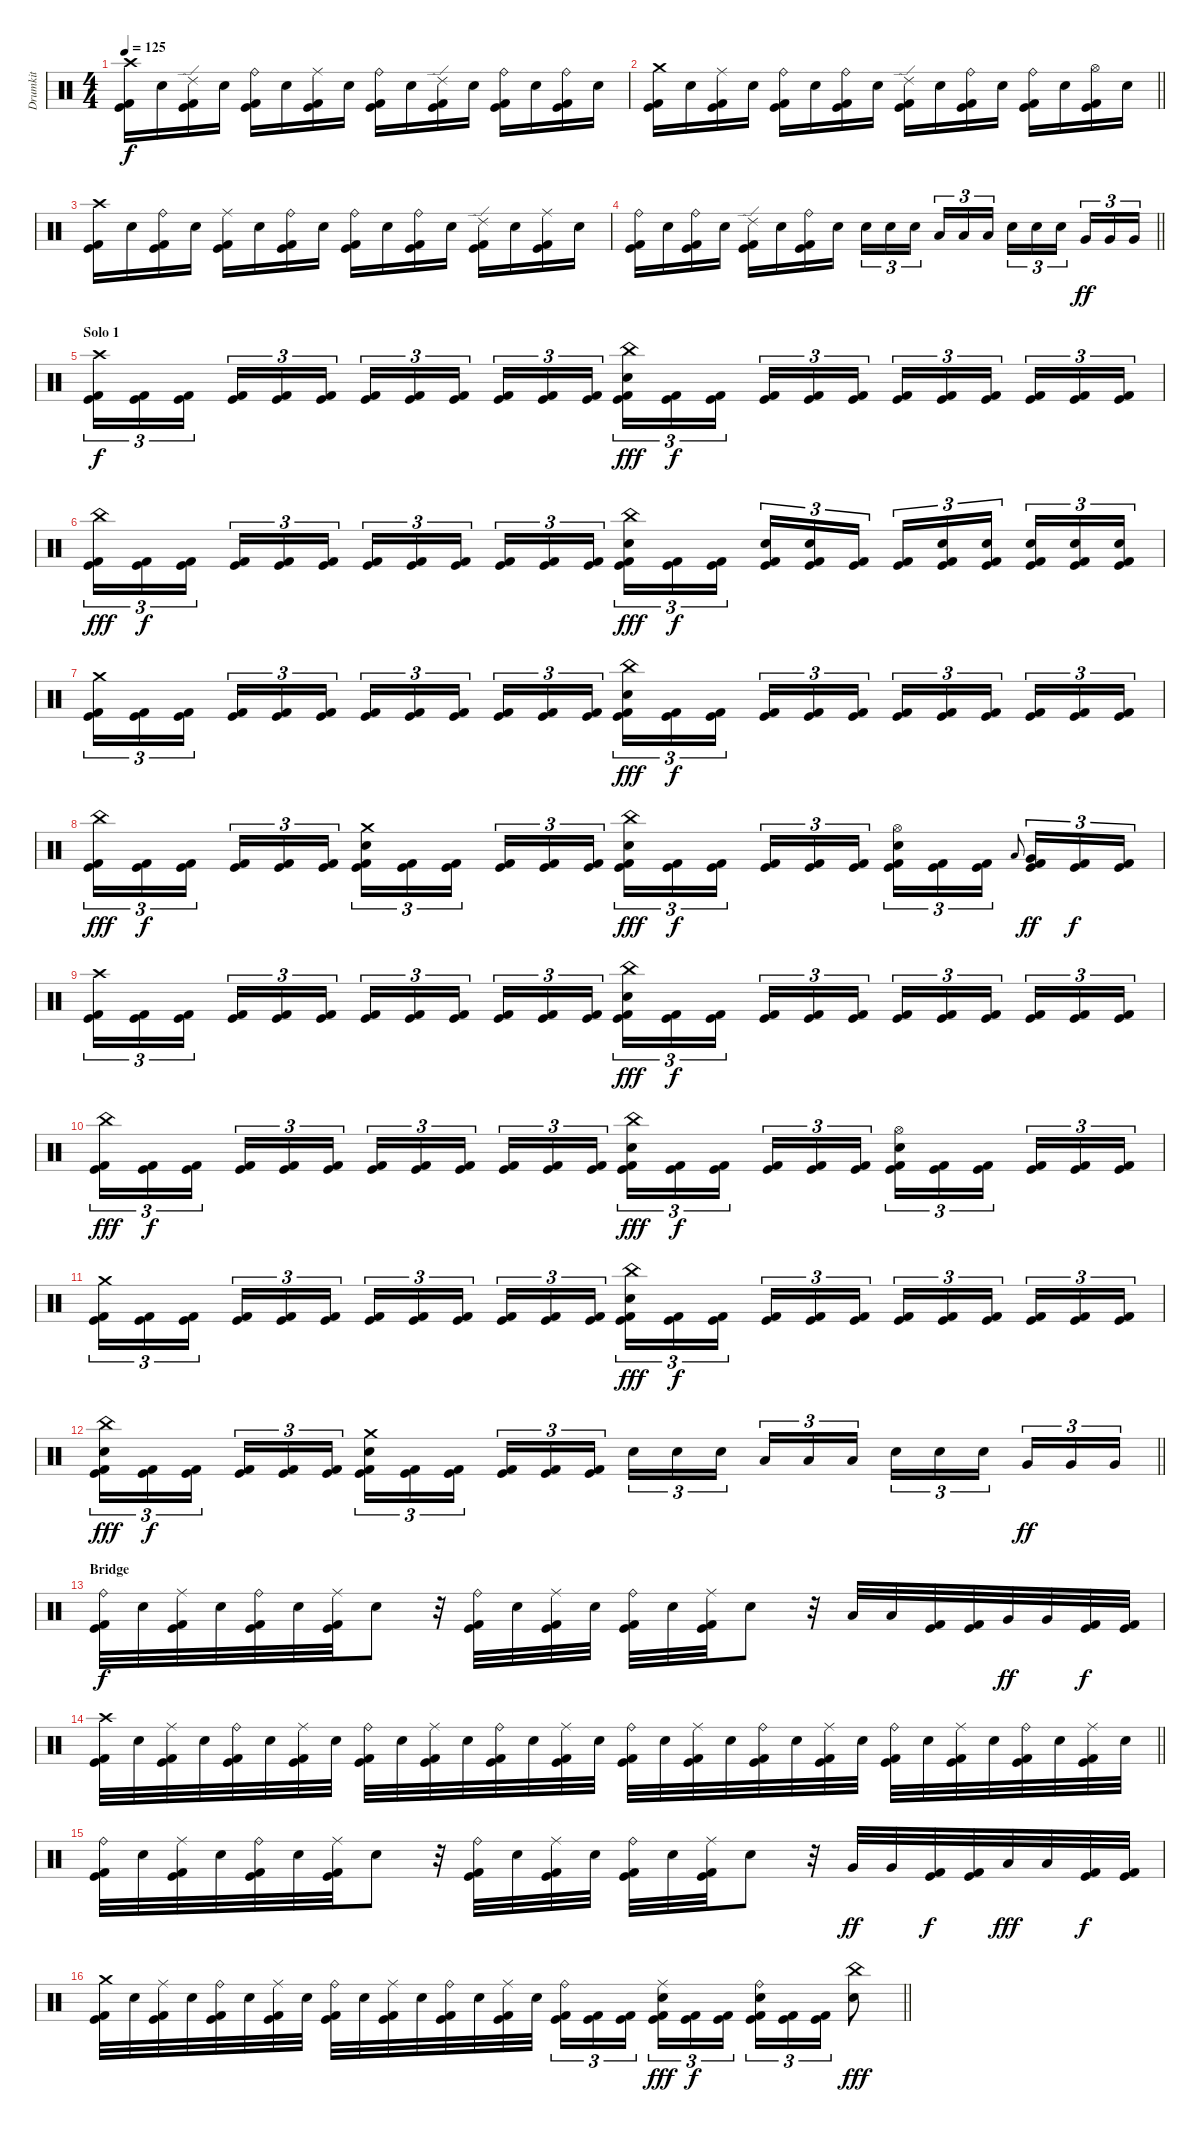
\track ("Drumkit" "Drumkit") {instrument percussion}
\staff {score}
\articulation defaults
\ts (4 4)
\tempo 125
\clef neutral
\ks c
("Crash high (hit)" "Kick (hit)" "Kick (hit) 2").16{dy f} "Electric Snare (hit)".16 ("Ride (edge) 2" "Kick (hit)" "Kick (hit) 2").16 "Electric Snare (hit)".16 ("Ride (bell)" "Kick (hit)" "Kick (hit) 2").16 "Electric Snare (hit)".16 ("Ride (middle)" "Kick (hit)" "Kick (hit) 2").16 "Electric Snare (hit)".16 ("Ride (bell)" "Kick (hit)" "Kick (hit) 2").16 "Electric Snare (hit)".16 ("Ride (edge) 2" "Kick (hit)" "Kick (hit) 2").16 "Electric Snare (hit)".16 ("Ride (bell)" "Kick (hit)" "Kick (hit) 2").16 "Electric Snare (hit)".16 ("Ride (bell)" "Kick (hit)" "Kick (hit) 2").16 "Electric Snare (hit)".16 |
\barLineRight lightlight
("Crash medium (hit)" "Kick (hit)" "Kick (hit) 2").16 "Electric Snare (hit)".16 ("Ride (middle)" "Kick (hit)" "Kick (hit) 2").16 "Electric Snare (hit)".16 ("Ride (bell)" "Kick (hit)" "Kick (hit) 2").16 "Electric Snare (hit)".16 ("Ride (bell)" "Kick (hit)" "Kick (hit) 2").16 "Electric Snare (hit)".16 ("Ride (edge) 2" "Kick (hit)" "Kick (hit) 2").16 "Electric Snare (hit)".16 ("Ride (bell)" "Kick (hit)" "Kick (hit) 2").16 "Electric Snare (hit)".16 ("Ride (bell)" "Kick (hit)" "Kick (hit) 2").16 "Electric Snare (hit)".16 ("Hi-Hat (open)" "Kick (hit)" "Kick (hit) 2").16 "Electric Snare (hit)".16 |
("Crash high (hit)" "Kick (hit)" "Kick (hit) 2").16 "Electric Snare (hit)".16 ("Ride (bell)" "Kick (hit)" "Kick (hit) 2").16 "Electric Snare (hit)".16 ("Ride (middle)" "Kick (hit)" "Kick (hit) 2").16 "Electric Snare (hit)".16 ("Ride (bell)" "Kick (hit)" "Kick (hit) 2").16 "Electric Snare (hit)".16 ("Ride (bell)" "Kick (hit)" "Kick (hit) 2").16 "Electric Snare (hit)".16 ("Ride (bell)" "Kick (hit)" "Kick (hit) 2").16 "Electric Snare (hit)".16 ("Ride (edge) 2" "Kick (hit)" "Kick (hit) 2").16 "Electric Snare (hit)".16 ("Ride (middle)" "Kick (hit)" "Kick (hit) 2").16 "Electric Snare (hit)".16 |
\barLineRight lightlight
("Ride (bell)" "Kick (hit)" "Kick (hit) 2").16 "Electric Snare (hit)".16 ("Ride (bell)" "Kick (hit)" "Kick (hit) 2").16 "Electric Snare (hit)".16 ("Ride (edge) 2" "Kick (hit)" "Kick (hit) 2").16 "Electric Snare (hit)".16 ("Ride (bell)" "Kick (hit)" "Kick (hit) 2").16 "Electric Snare (hit)".16 "Electric Snare (hit)".16{tu (3 2)} "Electric Snare (hit)".16{tu (3 2)} "Electric Snare (hit)".16{tu (3 2) beam splitsecondary} "Low Tom (hit)".16{tu (3 2)} "Low Tom (hit)".16{tu (3 2)} "Low Tom (hit)".16{tu (3 2)} "Electric Snare (hit)".16{tu (3 2)} "Electric Snare (hit)".16{tu (3 2)} "Electric Snare (hit)".16{tu (3 2) beam splitsecondary} "Very Low Tom (hit)".16{tu (3 2) dy ff} "Very Low Tom (hit)".16{tu (3 2)} "Very Low Tom (hit)".16{tu (3 2)} |
\section ("" "Solo 1")
("Crash high (hit)" "Kick (hit)" "Kick (hit) 2").16{tu (3 2) dy f} ("Kick (hit)" "Kick (hit) 2").16{tu (3 2)} ("Kick (hit)" "Kick (hit) 2").16{tu (3 2) beam splitsecondary} ("Kick (hit)" "Kick (hit) 2").16{tu (3 2)} ("Kick (hit)" "Kick (hit) 2").16{tu (3 2)} ("Kick (hit)" "Kick (hit) 2").16{tu (3 2)} ("Kick (hit)" "Kick (hit) 2").16{tu (3 2)} ("Kick (hit)" "Kick (hit) 2").16{tu (3 2)} ("Kick (hit)" "Kick (hit) 2").16{tu (3 2) beam splitsecondary} ("Kick (hit)" "Kick (hit) 2").16{tu (3 2)} ("Kick (hit)" "Kick (hit) 2").16{tu (3 2)} ("Kick (hit)" "Kick (hit) 2").16{tu (3 2)} ("China (hit)" "Electric Snare (hit)" "Kick (hit)" "Kick (hit) 2").16{tu (3 2) dy fff} ("Kick (hit)" "Kick (hit) 2").16{tu (3 2) dy f} ("Kick (hit)" "Kick (hit) 2").16{tu (3 2) beam splitsecondary} ("Kick (hit)" "Kick (hit) 2").16{tu (3 2)} ("Kick (hit)" "Kick (hit) 2").16{tu (3 2)} ("Kick (hit)" "Kick (hit) 2").16{tu (3 2)} ("Kick (hit)" "Kick (hit) 2").16{tu (3 2)} ("Kick (hit)" "Kick (hit) 2").16{tu (3 2)} ("Kick (hit)" "Kick (hit) 2").16{tu (3 2) beam splitsecondary} ("Kick (hit)" "Kick (hit) 2").16{tu (3 2)} ("Kick (hit)" "Kick (hit) 2").16{tu (3 2)} ("Kick (hit)" "Kick (hit) 2").16{tu (3 2)} |
("China (hit)" "Kick (hit)" "Kick (hit) 2").16{tu (3 2) dy fff} ("Kick (hit)" "Kick (hit) 2").16{tu (3 2) dy f} ("Kick (hit)" "Kick (hit) 2").16{tu (3 2) beam splitsecondary} ("Kick (hit)" "Kick (hit) 2").16{tu (3 2)} ("Kick (hit)" "Kick (hit) 2").16{tu (3 2)} ("Kick (hit)" "Kick (hit) 2").16{tu (3 2)} ("Kick (hit)" "Kick (hit) 2").16{tu (3 2)} ("Kick (hit)" "Kick (hit) 2").16{tu (3 2)} ("Kick (hit)" "Kick (hit) 2").16{tu (3 2) beam splitsecondary} ("Kick (hit)" "Kick (hit) 2").16{tu (3 2)} ("Kick (hit)" "Kick (hit) 2").16{tu (3 2)} ("Kick (hit)" "Kick (hit) 2").16{tu (3 2)} ("China (hit)" "Electric Snare (hit)" "Kick (hit)" "Kick (hit) 2").16{tu (3 2) dy fff} ("Kick (hit)" "Kick (hit) 2").16{tu (3 2) dy f} ("Kick (hit)" "Kick (hit) 2").16{tu (3 2) beam splitsecondary} ("Electric Snare (hit)" "Kick (hit)" "Kick (hit) 2").16{tu (3 2)} ("Electric Snare (hit)" "Kick (hit)" "Kick (hit) 2").16{tu (3 2)} ("Kick (hit)" "Kick (hit) 2").16{tu (3 2)} ("Kick (hit)" "Kick (hit) 2").16{tu (3 2)} ("Electric Snare (hit)" "Kick (hit)" "Kick (hit) 2").16{tu (3 2)} ("Electric Snare (hit)" "Kick (hit)" "Kick (hit) 2").16{tu (3 2) beam splitsecondary} ("Electric Snare (hit)" "Kick (hit)" "Kick (hit) 2").16{tu (3 2)} ("Electric Snare (hit)" "Kick (hit)" "Kick (hit) 2").16{tu (3 2)} ("Electric Snare (hit)" "Kick (hit)" "Kick (hit) 2").16{tu (3 2)} |
("Crash medium (hit)" "Kick (hit)" "Kick (hit) 2").16{tu (3 2)} ("Kick (hit)" "Kick (hit) 2").16{tu (3 2)} ("Kick (hit)" "Kick (hit) 2").16{tu (3 2) beam splitsecondary} ("Kick (hit)" "Kick (hit) 2").16{tu (3 2)} ("Kick (hit)" "Kick (hit) 2").16{tu (3 2)} ("Kick (hit)" "Kick (hit) 2").16{tu (3 2)} ("Kick (hit)" "Kick (hit) 2").16{tu (3 2)} ("Kick (hit)" "Kick (hit) 2").16{tu (3 2)} ("Kick (hit)" "Kick (hit) 2").16{tu (3 2) beam splitsecondary} ("Kick (hit)" "Kick (hit) 2").16{tu (3 2)} ("Kick (hit)" "Kick (hit) 2").16{tu (3 2)} ("Kick (hit)" "Kick (hit) 2").16{tu (3 2)} ("China (hit)" "Electric Snare (hit)" "Kick (hit)" "Kick (hit) 2").16{tu (3 2) dy fff} ("Kick (hit)" "Kick (hit) 2").16{tu (3 2) dy f} ("Kick (hit)" "Kick (hit) 2").16{tu (3 2) beam splitsecondary} ("Kick (hit)" "Kick (hit) 2").16{tu (3 2)} ("Kick (hit)" "Kick (hit) 2").16{tu (3 2)} ("Kick (hit)" "Kick (hit) 2").16{tu (3 2)} ("Kick (hit)" "Kick (hit) 2").16{tu (3 2)} ("Kick (hit)" "Kick (hit) 2").16{tu (3 2)} ("Kick (hit)" "Kick (hit) 2").16{tu (3 2) beam splitsecondary} ("Kick (hit)" "Kick (hit) 2").16{tu (3 2)} ("Kick (hit)" "Kick (hit) 2").16{tu (3 2)} ("Kick (hit)" "Kick (hit) 2").16{tu (3 2)} |
("China (hit)" "Kick (hit)" "Kick (hit) 2").16{tu (3 2) dy fff} ("Kick (hit)" "Kick (hit) 2").16{tu (3 2) dy f} ("Kick (hit)" "Kick (hit) 2").16{tu (3 2) beam splitsecondary} ("Kick (hit)" "Kick (hit) 2").16{tu (3 2)} ("Kick (hit)" "Kick (hit) 2").16{tu (3 2)} ("Kick (hit)" "Kick (hit) 2").16{tu (3 2)} ("Crash medium (hit)" "Electric Snare (hit)" "Kick (hit)" "Kick (hit) 2").16{tu (3 2)} ("Kick (hit)" "Kick (hit) 2").16{tu (3 2)} ("Kick (hit)" "Kick (hit) 2").16{tu (3 2) beam splitsecondary} ("Kick (hit)" "Kick (hit) 2").16{tu (3 2)} ("Kick (hit)" "Kick (hit) 2").16{tu (3 2)} ("Kick (hit)" "Kick (hit) 2").16{tu (3 2)} ("China (hit)" "Electric Snare (hit)" "Kick (hit)" "Kick (hit) 2").16{tu (3 2) dy fff} ("Kick (hit)" "Kick (hit) 2").16{tu (3 2) dy f} ("Kick (hit)" "Kick (hit) 2").16{tu (3 2) beam splitsecondary} ("Kick (hit)" "Kick (hit) 2").16{tu (3 2)} ("Kick (hit)" "Kick (hit) 2").16{tu (3 2)} ("Kick (hit)" "Kick (hit) 2").16{tu (3 2)} ("Hi-Hat (open)" "Electric Snare (hit)" "Kick (hit)" "Kick (hit) 2").16{tu (3 2)} ("Kick (hit)" "Kick (hit) 2").16{tu (3 2)} ("Kick (hit)" "Kick (hit) 2").16{tu (3 2)} "Low Tom (hit)".8{gr onbeat beam splitsecondary} ("Very Low Tom (hit)" "Kick (hit)" "Kick (hit) 2").16{tu (3 2) dy ff} ("Kick (hit)" "Kick (hit) 2").16{tu (3 2) dy f} ("Kick (hit)" "Kick (hit) 2").16{tu (3 2)} |
("Crash high (hit)" "Kick (hit)" "Kick (hit) 2").16{tu (3 2)} ("Kick (hit)" "Kick (hit) 2").16{tu (3 2)} ("Kick (hit)" "Kick (hit) 2").16{tu (3 2) beam splitsecondary} ("Kick (hit)" "Kick (hit) 2").16{tu (3 2)} ("Kick (hit)" "Kick (hit) 2").16{tu (3 2)} ("Kick (hit)" "Kick (hit) 2").16{tu (3 2)} ("Kick (hit)" "Kick (hit) 2").16{tu (3 2)} ("Kick (hit)" "Kick (hit) 2").16{tu (3 2)} ("Kick (hit)" "Kick (hit) 2").16{tu (3 2) beam splitsecondary} ("Kick (hit)" "Kick (hit) 2").16{tu (3 2)} ("Kick (hit)" "Kick (hit) 2").16{tu (3 2)} ("Kick (hit)" "Kick (hit) 2").16{tu (3 2)} ("China (hit)" "Electric Snare (hit)" "Kick (hit)" "Kick (hit) 2").16{tu (3 2) dy fff} ("Kick (hit)" "Kick (hit) 2").16{tu (3 2) dy f} ("Kick (hit)" "Kick (hit) 2").16{tu (3 2) beam splitsecondary} ("Kick (hit)" "Kick (hit) 2").16{tu (3 2)} ("Kick (hit)" "Kick (hit) 2").16{tu (3 2)} ("Kick (hit)" "Kick (hit) 2").16{tu (3 2)} ("Kick (hit)" "Kick (hit) 2").16{tu (3 2)} ("Kick (hit)" "Kick (hit) 2").16{tu (3 2)} ("Kick (hit)" "Kick (hit) 2").16{tu (3 2) beam splitsecondary} ("Kick (hit)" "Kick (hit) 2").16{tu (3 2)} ("Kick (hit)" "Kick (hit) 2").16{tu (3 2)} ("Kick (hit)" "Kick (hit) 2").16{tu (3 2)} |
("China (hit)" "Kick (hit)" "Kick (hit) 2").16{tu (3 2) dy fff} ("Kick (hit)" "Kick (hit) 2").16{tu (3 2) dy f} ("Kick (hit)" "Kick (hit) 2").16{tu (3 2) beam splitsecondary} ("Kick (hit)" "Kick (hit) 2").16{tu (3 2)} ("Kick (hit)" "Kick (hit) 2").16{tu (3 2)} ("Kick (hit)" "Kick (hit) 2").16{tu (3 2)} ("Kick (hit)" "Kick (hit) 2").16{tu (3 2)} ("Kick (hit)" "Kick (hit) 2").16{tu (3 2)} ("Kick (hit)" "Kick (hit) 2").16{tu (3 2) beam splitsecondary} ("Kick (hit)" "Kick (hit) 2").16{tu (3 2)} ("Kick (hit)" "Kick (hit) 2").16{tu (3 2)} ("Kick (hit)" "Kick (hit) 2").16{tu (3 2)} ("China (hit)" "Electric Snare (hit)" "Kick (hit)" "Kick (hit) 2").16{tu (3 2) dy fff} ("Kick (hit)" "Kick (hit) 2").16{tu (3 2) dy f} ("Kick (hit)" "Kick (hit) 2").16{tu (3 2) beam splitsecondary} ("Kick (hit)" "Kick (hit) 2").16{tu (3 2)} ("Kick (hit)" "Kick (hit) 2").16{tu (3 2)} ("Kick (hit)" "Kick (hit) 2").16{tu (3 2)} ("Hi-Hat (open)" "Electric Snare (hit)" "Kick (hit)" "Kick (hit) 2").16{tu (3 2)} ("Kick (hit)" "Kick (hit) 2").16{tu (3 2)} ("Kick (hit)" "Kick (hit) 2").16{tu (3 2) beam splitsecondary} ("Kick (hit)" "Kick (hit) 2").16{tu (3 2)} ("Kick (hit)" "Kick (hit) 2").16{tu (3 2)} ("Kick (hit)" "Kick (hit) 2").16{tu (3 2)} |
("Crash medium (hit)" "Kick (hit)" "Kick (hit) 2").16{tu (3 2)} ("Kick (hit)" "Kick (hit) 2").16{tu (3 2)} ("Kick (hit)" "Kick (hit) 2").16{tu (3 2) beam splitsecondary} ("Kick (hit)" "Kick (hit) 2").16{tu (3 2)} ("Kick (hit)" "Kick (hit) 2").16{tu (3 2)} ("Kick (hit)" "Kick (hit) 2").16{tu (3 2)} ("Kick (hit)" "Kick (hit) 2").16{tu (3 2)} ("Kick (hit)" "Kick (hit) 2").16{tu (3 2)} ("Kick (hit)" "Kick (hit) 2").16{tu (3 2) beam splitsecondary} ("Kick (hit)" "Kick (hit) 2").16{tu (3 2)} ("Kick (hit)" "Kick (hit) 2").16{tu (3 2)} ("Kick (hit)" "Kick (hit) 2").16{tu (3 2)} ("China (hit)" "Electric Snare (hit)" "Kick (hit)" "Kick (hit) 2").16{tu (3 2) dy fff} ("Kick (hit)" "Kick (hit) 2").16{tu (3 2) dy f} ("Kick (hit)" "Kick (hit) 2").16{tu (3 2) beam splitsecondary} ("Kick (hit)" "Kick (hit) 2").16{tu (3 2)} ("Kick (hit)" "Kick (hit) 2").16{tu (3 2)} ("Kick (hit)" "Kick (hit) 2").16{tu (3 2)} ("Kick (hit)" "Kick (hit) 2").16{tu (3 2)} ("Kick (hit)" "Kick (hit) 2").16{tu (3 2)} ("Kick (hit)" "Kick (hit) 2").16{tu (3 2) beam splitsecondary} ("Kick (hit)" "Kick (hit) 2").16{tu (3 2)} ("Kick (hit)" "Kick (hit) 2").16{tu (3 2)} ("Kick (hit)" "Kick (hit) 2").16{tu (3 2)} |
\barLineRight lightlight
("China (hit)" "Electric Snare (hit)" "Kick (hit)" "Kick (hit) 2").16{tu (3 2) dy fff} ("Kick (hit)" "Kick (hit) 2").16{tu (3 2) dy f} ("Kick (hit)" "Kick (hit) 2").16{tu (3 2) beam splitsecondary} ("Kick (hit)" "Kick (hit) 2").16{tu (3 2)} ("Kick (hit)" "Kick (hit) 2").16{tu (3 2)} ("Kick (hit)" "Kick (hit) 2").16{tu (3 2)} ("Crash medium (hit)" "Electric Snare (hit)" "Kick (hit)" "Kick (hit) 2").16{tu (3 2)} ("Kick (hit)" "Kick (hit) 2").16{tu (3 2)} ("Kick (hit)" "Kick (hit) 2").16{tu (3 2) beam splitsecondary} ("Kick (hit)" "Kick (hit) 2").16{tu (3 2)} ("Kick (hit)" "Kick (hit) 2").16{tu (3 2)} ("Kick (hit)" "Kick (hit) 2").16{tu (3 2)} "Electric Snare (hit)".16{tu (3 2)} "Electric Snare (hit)".16{tu (3 2)} "Electric Snare (hit)".16{tu (3 2) beam splitsecondary} "Low Tom (hit)".16{tu (3 2)} "Low Tom (hit)".16{tu (3 2)} "Low Tom (hit)".16{tu (3 2)} "Electric Snare (hit)".16{tu (3 2)} "Electric Snare (hit)".16{tu (3 2)} "Electric Snare (hit)".16{tu (3 2) beam splitsecondary} "Very Low Tom (hit)".16{tu (3 2) dy ff} "Very Low Tom (hit)".16{tu (3 2)} "Very Low Tom (hit)".16{tu (3 2)} |
\section ("" "Bridge")
("Ride (bell)" "Kick (hit)" "Kick (hit) 2").32{dy f} "Electric Snare (hit)".32 ("Ride (middle)" "Kick (hit)" "Kick (hit) 2").32 "Electric Snare (hit)".32 ("Ride (bell)" "Kick (hit)" "Kick (hit) 2").32 "Electric Snare (hit)".32 ("Ride (middle)" "Kick (hit)" "Kick (hit) 2").32 "Electric Snare (hit)".8 r.32 ("Ride (bell)" "Kick (hit)" "Kick (hit) 2").32 "Electric Snare (hit)".32 ("Ride (middle)" "Kick (hit)" "Kick (hit) 2").32 "Electric Snare (hit)".32 ("Ride (bell)" "Kick (hit)" "Kick (hit) 2").32 "Electric Snare (hit)".32 ("Ride (middle)" "Kick (hit)" "Kick (hit) 2").32 "Electric Snare (hit)".8 r.32 "Low Tom (hit)".32 "Low Tom (hit)".32 ("Kick (hit)" "Kick (hit) 2").32 ("Kick (hit)" "Kick (hit) 2").32 "Very Low Tom (hit)".32{dy ff} "Very Low Tom (hit)".32 ("Kick (hit)" "Kick (hit) 2").32{dy f} ("Kick (hit)" "Kick (hit) 2").32 |
\barLineRight lightlight
("Crash high (hit)" "Kick (hit)" "Kick (hit) 2").32 "Electric Snare (hit)".32 ("Ride (middle)" "Kick (hit)" "Kick (hit) 2").32 "Electric Snare (hit)".32 ("Ride (bell)" "Kick (hit)" "Kick (hit) 2").32 "Electric Snare (hit)".32 ("Ride (middle)" "Kick (hit)" "Kick (hit) 2").32 "Electric Snare (hit)".32 ("Ride (bell)" "Kick (hit)" "Kick (hit) 2").32 "Electric Snare (hit)".32 ("Ride (middle)" "Kick (hit)" "Kick (hit) 2").32 "Electric Snare (hit)".32 ("Ride (bell)" "Kick (hit)" "Kick (hit) 2").32 "Electric Snare (hit)".32 ("Ride (middle)" "Kick (hit)" "Kick (hit) 2").32 "Electric Snare (hit)".32 ("Ride (bell)" "Kick (hit)" "Kick (hit) 2").32 "Electric Snare (hit)".32 ("Ride (middle)" "Kick (hit)" "Kick (hit) 2").32 "Electric Snare (hit)".32 ("Ride (bell)" "Kick (hit)" "Kick (hit) 2").32 "Electric Snare (hit)".32 ("Ride (middle)" "Kick (hit)" "Kick (hit) 2").32 "Electric Snare (hit)".32 ("Ride (bell)" "Kick (hit)" "Kick (hit) 2").32 "Electric Snare (hit)".32 ("Ride (middle)" "Kick (hit)" "Kick (hit) 2").32 "Electric Snare (hit)".32 ("Ride (bell)" "Kick (hit)" "Kick (hit) 2").32 "Electric Snare (hit)".32 ("Ride (middle)" "Kick (hit)" "Kick (hit) 2").32 "Electric Snare (hit)".32 |
("Ride (bell)" "Kick (hit)" "Kick (hit) 2").32 "Electric Snare (hit)".32 ("Ride (middle)" "Kick (hit)" "Kick (hit) 2").32 "Electric Snare (hit)".32 ("Ride (bell)" "Kick (hit)" "Kick (hit) 2").32 "Electric Snare (hit)".32 ("Ride (middle)" "Kick (hit)" "Kick (hit) 2").32 "Electric Snare (hit)".8 r.32 ("Ride (bell)" "Kick (hit)" "Kick (hit) 2").32 "Electric Snare (hit)".32 ("Ride (middle)" "Kick (hit)" "Kick (hit) 2").32 "Electric Snare (hit)".32 ("Ride (bell)" "Kick (hit)" "Kick (hit) 2").32 "Electric Snare (hit)".32 ("Ride (middle)" "Kick (hit)" "Kick (hit) 2").32 "Electric Snare (hit)".8 r.32 "Very Low Tom (hit)".32{dy ff} "Very Low Tom (hit)".32 ("Kick (hit)" "Kick (hit) 2").32{dy f} ("Kick (hit)" "Kick (hit) 2").32 "Low Floor Tom (hit)".32{dy fff} "Low Floor Tom (hit)".32 ("Kick (hit)" "Kick (hit) 2").32{dy f} ("Kick (hit)" "Kick (hit) 2").32 |
\barLineRight lightlight
("Crash medium (hit)" "Kick (hit)" "Kick (hit) 2").32 "Electric Snare (hit)".32 ("Ride (middle)" "Kick (hit)" "Kick (hit) 2").32 "Electric Snare (hit)".32 ("Ride (bell)" "Kick (hit)" "Kick (hit) 2").32 "Electric Snare (hit)".32 ("Ride (middle)" "Kick (hit)" "Kick (hit) 2").32 "Electric Snare (hit)".32 ("Ride (bell)" "Kick (hit)" "Kick (hit) 2").32 "Electric Snare (hit)".32 ("Ride (middle)" "Kick (hit)" "Kick (hit) 2").32 "Electric Snare (hit)".32 ("Ride (bell)" "Kick (hit)" "Kick (hit) 2").32 "Electric Snare (hit)".32 ("Ride (middle)" "Kick (hit)" "Kick (hit) 2").32 "Electric Snare (hit)".32 ("Ride (bell)" "Kick (hit)" "Kick (hit) 2").16{tu (3 2)} ("Kick (hit)" "Kick (hit) 2").16{tu (3 2)} ("Kick (hit)" "Kick (hit) 2").16{tu (3 2) beam splitsecondary} ("Ride (middle)" "Electric Snare (hit)" "Kick (hit)" "Kick (hit) 2").16{tu (3 2) dy fff} ("Kick (hit)" "Kick (hit) 2").16{tu (3 2) dy f} ("Kick (hit)" "Kick (hit) 2").16{tu (3 2)} ("Ride (bell)" "Electric Snare (hit)" "Kick (hit)" "Kick (hit) 2").16{tu (3 2)} ("Kick (hit)" "Kick (hit) 2").16{tu (3 2)} ("Kick (hit)" "Kick (hit) 2").16{tu (3 2)} ("China (hit)" "Electric Snare (hit)").8{dy fff}
